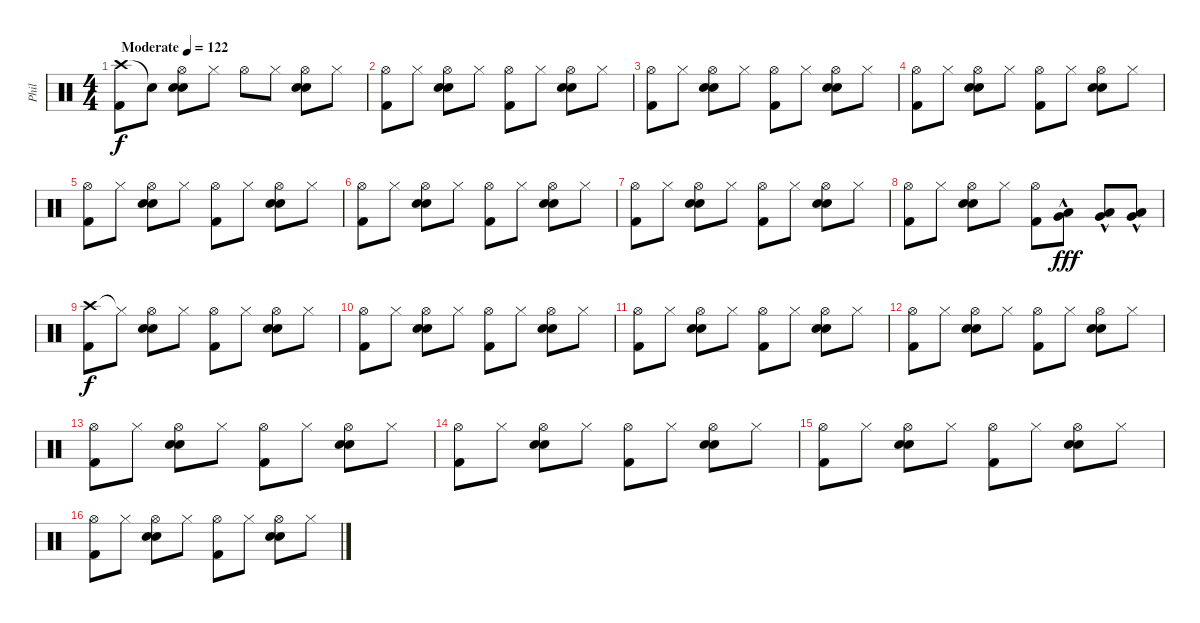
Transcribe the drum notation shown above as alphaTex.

\track ("Phil" "Phil") {instrument percussion}
\staff {score}
\articulation defaults
\ts (4 4)
\tempo (122 "Moderate")
\clef neutral
\ks c
("Crash high (hit)" "Kick (hit) 2").8{dy f} "Snare (hit)"{t}.8 ("Hi-Hat (open)" "Snare (hit) 2" "Electric Snare (hit)").8 "Hi-Hat (closed)".8 "Hi-Hat (open)".8 "Hi-Hat (closed)".8 ("Hi-Hat (open)" "Snare (hit) 2" "Electric Snare (hit)").8 "Hi-Hat (closed)".8 |
("Hi-Hat (open)" "Kick (hit) 2").8 "Hi-Hat (closed)".8 ("Hi-Hat (open)" "Snare (hit) 2" "Electric Snare (hit)").8 "Hi-Hat (closed)".8 ("Hi-Hat (open)" "Kick (hit) 2").8 "Hi-Hat (closed)".8 ("Hi-Hat (open)" "Snare (hit) 2" "Electric Snare (hit)").8 "Hi-Hat (closed)".8 |
("Hi-Hat (open)" "Kick (hit) 2").8 "Hi-Hat (closed)".8 ("Hi-Hat (open)" "Snare (hit) 2" "Electric Snare (hit)").8 "Hi-Hat (closed)".8 ("Hi-Hat (open)" "Kick (hit) 2").8 "Hi-Hat (closed)".8 ("Hi-Hat (open)" "Snare (hit) 2" "Electric Snare (hit)").8 "Hi-Hat (closed)".8 |
("Hi-Hat (open)" "Kick (hit) 2").8 "Hi-Hat (closed)".8 ("Hi-Hat (open)" "Snare (hit) 2" "Electric Snare (hit)").8 "Hi-Hat (closed)".8 ("Hi-Hat (open)" "Kick (hit) 2").8 "Hi-Hat (closed)".8 ("Hi-Hat (open)" "Snare (hit) 2" "Electric Snare (hit)").8 "Hi-Hat (closed)".8 |
("Hi-Hat (open)" "Kick (hit) 2").8 "Hi-Hat (closed)".8 ("Hi-Hat (open)" "Snare (hit) 2" "Electric Snare (hit)").8 "Hi-Hat (closed)".8 ("Hi-Hat (open)" "Kick (hit) 2").8 "Hi-Hat (closed)".8 ("Hi-Hat (open)" "Snare (hit) 2" "Electric Snare (hit)").8 "Hi-Hat (closed)".8 |
("Hi-Hat (open)" "Kick (hit) 2").8 "Hi-Hat (closed)".8 ("Hi-Hat (open)" "Snare (hit) 2" "Electric Snare (hit)").8 "Hi-Hat (closed)".8 ("Hi-Hat (open)" "Kick (hit) 2").8 "Hi-Hat (closed)".8 ("Hi-Hat (open)" "Snare (hit) 2" "Electric Snare (hit)").8 "Hi-Hat (closed)".8 |
("Hi-Hat (open)" "Kick (hit) 2").8 "Hi-Hat (closed)".8 ("Hi-Hat (open)" "Snare (hit) 2" "Electric Snare (hit)").8 "Hi-Hat (closed)".8 ("Hi-Hat (open)" "Kick (hit) 2").8 "Hi-Hat (closed)".8 ("Hi-Hat (open)" "Snare (hit) 2" "Electric Snare (hit)").8 "Hi-Hat (closed)".8 |
("Hi-Hat (open)" "Kick (hit) 2").8 "Hi-Hat (closed)".8 ("Hi-Hat (open)" "Snare (hit) 2" "Electric Snare (hit)").8 "Hi-Hat (closed)".8 ("Hi-Hat (open)" "Kick (hit) 2").8 ("Very Low Tom (hit)"{hac} "Low Floor Tom (hit)"{hac}).8{dy fff balance 8} ("Very Low Tom (hit)"{hac} "Low Floor Tom (hit)"{hac}).8{balance 15} ("Very Low Tom (hit)"{hac} "Low Floor Tom (hit)"{hac}).8{balance 15} |
("Crash high (hit)" "Kick (hit) 2").8{dy f} "Hi-Hat (closed)"{t}.8 ("Hi-Hat (open)" "Snare (hit) 2" "Electric Snare (hit)").8 "Hi-Hat (closed)".8 ("Hi-Hat (open)" "Kick (hit) 2").8 "Hi-Hat (closed)".8 ("Hi-Hat (open)" "Snare (hit) 2" "Electric Snare (hit)").8 "Hi-Hat (closed)".8 |
("Hi-Hat (open)" "Kick (hit) 2").8 "Hi-Hat (closed)".8 ("Hi-Hat (open)" "Snare (hit) 2" "Electric Snare (hit)").8 "Hi-Hat (closed)".8 ("Hi-Hat (open)" "Kick (hit) 2").8 "Hi-Hat (closed)".8 ("Hi-Hat (open)" "Snare (hit) 2" "Electric Snare (hit)").8 "Hi-Hat (closed)".8 |
("Hi-Hat (open)" "Kick (hit) 2").8 "Hi-Hat (closed)".8 ("Hi-Hat (open)" "Snare (hit) 2" "Electric Snare (hit)").8 "Hi-Hat (closed)".8 ("Hi-Hat (open)" "Kick (hit) 2").8 "Hi-Hat (closed)".8 ("Hi-Hat (open)" "Snare (hit) 2" "Electric Snare (hit)").8 "Hi-Hat (closed)".8 |
("Hi-Hat (open)" "Kick (hit) 2").8 "Hi-Hat (closed)".8 ("Hi-Hat (open)" "Snare (hit) 2" "Electric Snare (hit)").8 "Hi-Hat (closed)".8 ("Hi-Hat (open)" "Kick (hit) 2").8 "Hi-Hat (closed)".8 ("Hi-Hat (open)" "Snare (hit) 2" "Electric Snare (hit)").8 "Hi-Hat (closed)".8 |
("Hi-Hat (open)" "Kick (hit) 2").8 "Hi-Hat (closed)".8 ("Hi-Hat (open)" "Snare (hit) 2" "Electric Snare (hit)").8 "Hi-Hat (closed)".8 ("Hi-Hat (open)" "Kick (hit) 2").8 "Hi-Hat (closed)".8 ("Hi-Hat (open)" "Snare (hit) 2" "Electric Snare (hit)").8 "Hi-Hat (closed)".8 |
("Hi-Hat (open)" "Kick (hit) 2").8 "Hi-Hat (closed)".8 ("Hi-Hat (open)" "Snare (hit) 2" "Electric Snare (hit)").8 "Hi-Hat (closed)".8 ("Hi-Hat (open)" "Kick (hit) 2").8 "Hi-Hat (closed)".8 ("Hi-Hat (open)" "Snare (hit) 2" "Electric Snare (hit)").8 "Hi-Hat (closed)".8 |
("Hi-Hat (open)" "Kick (hit) 2").8 "Hi-Hat (closed)".8 ("Hi-Hat (open)" "Snare (hit) 2" "Electric Snare (hit)").8 "Hi-Hat (closed)".8 ("Hi-Hat (open)" "Kick (hit) 2").8 "Hi-Hat (closed)".8 ("Hi-Hat (open)" "Snare (hit) 2" "Electric Snare (hit)").8 "Hi-Hat (closed)".8 |
("Hi-Hat (open)" "Kick (hit) 2").8 "Hi-Hat (closed)".8 ("Hi-Hat (open)" "Snare (hit) 2" "Electric Snare (hit)").8 "Hi-Hat (closed)".8 ("Hi-Hat (open)" "Kick (hit) 2").8 "Hi-Hat (closed)".8 ("Hi-Hat (open)" "Snare (hit) 2" "Electric Snare (hit)").8 "Hi-Hat (closed)".8
